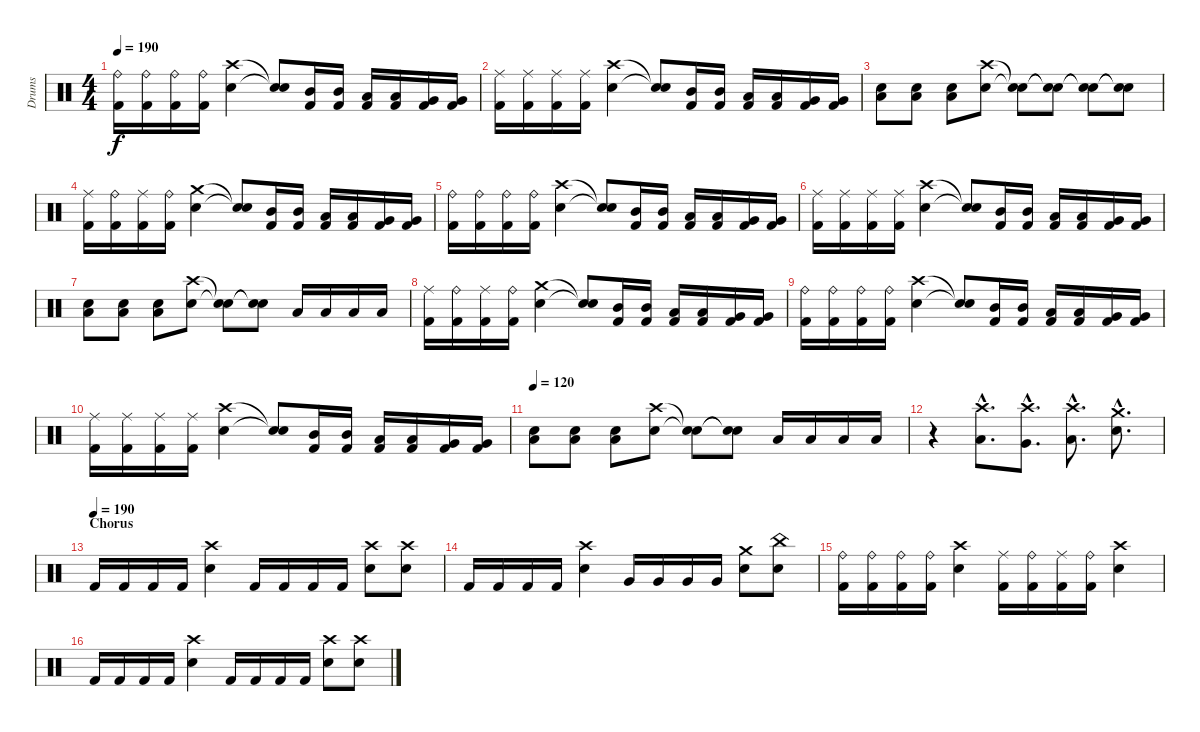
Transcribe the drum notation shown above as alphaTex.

\track ("Drums" "Drums") {instrument percussion}
\staff {score}
\articulation defaults
\ts (4 4)
\tempo 190
\clef neutral
\ks c
("Ride (bell)" "Kick (hit) 2").16{dy f} ("Ride (bell)" "Kick (hit) 2").16 ("Ride (bell)" "Kick (hit) 2").16 ("Ride (bell)" "Kick (hit) 2").16 ("Crash high (hit)" "Electric Snare (hit)").4 ("Snare (hit)"{t} "Snare (hit)"{t}).8 ("Mid Tom (hit)" "Kick (hit) 2").16 ("Mid Tom (hit)" "Kick (hit) 2").16 ("Low Tom (hit)" "Kick (hit) 2").16 ("Low Tom (hit)" "Kick (hit) 2").16 ("Very Low Tom (hit)" "Kick (hit) 2").16 ("Very Low Tom (hit)" "Kick (hit) 2").16 |
("Ride (middle)" "Kick (hit) 2").16 ("Ride (middle)" "Kick (hit) 2").16 ("Ride (middle)" "Kick (hit) 2").16 ("Ride (middle)" "Kick (hit) 2").16 ("Crash high (hit)" "Electric Snare (hit)").4 ("Snare (hit)"{t} "Snare (hit)"{t}).8 ("Mid Tom (hit)" "Kick (hit) 2").16 ("Mid Tom (hit)" "Kick (hit) 2").16 ("Low Tom (hit)" "Kick (hit) 2").16 ("Low Tom (hit)" "Kick (hit) 2").16 ("Very Low Tom (hit)" "Kick (hit) 2").16 ("Very Low Tom (hit)" "Kick (hit) 2").16 |
("Low Tom (hit)" "Electric Snare (hit)").8 ("Low Tom (hit)" "Electric Snare (hit)").8 ("Low Tom (hit)" "Electric Snare (hit)").8 ("Crash high (hit)" "Electric Snare (hit)").8 ("Snare (hit)"{t} "Snare (hit)"{t}).8 ("Snare (hit)"{t} "Snare (hit)"{t}).8 ("Snare (hit)"{t} "Snare (hit)"{t}).8 ("Snare (hit)"{t} "Snare (hit)"{t}).8 |
("Ride (middle)" "Kick (hit) 2").16 ("Ride (bell)" "Kick (hit) 2").16 ("Ride (middle)" "Kick (hit) 2").16 ("Ride (bell)" "Kick (hit) 2").16 ("Crash medium (hit)" "Electric Snare (hit)").4 ("Snare (hit)"{t} "Snare (hit)"{t}).8 ("Mid Tom (hit)" "Kick (hit) 2").16 ("Mid Tom (hit)" "Kick (hit) 2").16 ("Low Tom (hit)" "Kick (hit) 2").16 ("Low Tom (hit)" "Kick (hit) 2").16 ("Very Low Tom (hit)" "Kick (hit) 2").16 ("Very Low Tom (hit)" "Kick (hit) 2").16 |
("Ride (bell)" "Kick (hit) 2").16 ("Ride (bell)" "Kick (hit) 2").16 ("Ride (bell)" "Kick (hit) 2").16 ("Ride (bell)" "Kick (hit) 2").16 ("Crash high (hit)" "Electric Snare (hit)").4 ("Snare (hit)"{t} "Snare (hit)"{t}).8 ("Mid Tom (hit)" "Kick (hit) 2").16 ("Mid Tom (hit)" "Kick (hit) 2").16 ("Low Tom (hit)" "Kick (hit) 2").16 ("Low Tom (hit)" "Kick (hit) 2").16 ("Very Low Tom (hit)" "Kick (hit) 2").16 ("Very Low Tom (hit)" "Kick (hit) 2").16 |
("Ride (middle)" "Kick (hit) 2").16 ("Ride (middle)" "Kick (hit) 2").16 ("Ride (middle)" "Kick (hit) 2").16 ("Ride (middle)" "Kick (hit) 2").16 ("Crash high (hit)" "Electric Snare (hit)").4 ("Snare (hit)"{t} "Snare (hit)"{t}).8 ("Mid Tom (hit)" "Kick (hit) 2").16 ("Mid Tom (hit)" "Kick (hit) 2").16 ("Low Tom (hit)" "Kick (hit) 2").16 ("Low Tom (hit)" "Kick (hit) 2").16 ("Very Low Tom (hit)" "Kick (hit) 2").16 ("Very Low Tom (hit)" "Kick (hit) 2").16 |
("Low Tom (hit)" "Electric Snare (hit)").8 ("Low Tom (hit)" "Electric Snare (hit)").8 ("Low Tom (hit)" "Electric Snare (hit)").8 ("Crash high (hit)" "Electric Snare (hit)").8 ("Snare (hit)"{t} "Snare (hit)"{t}).8 ("Snare (hit)"{t} "Snare (hit)"{t}).8 "Low Tom (hit)".16 "Low Tom (hit)".16 "Low Tom (hit)".16 "Low Tom (hit)".16 |
("Ride (middle)" "Kick (hit) 2").16 ("Ride (bell)" "Kick (hit) 2").16 ("Ride (middle)" "Kick (hit) 2").16 ("Ride (bell)" "Kick (hit) 2").16 ("Crash medium (hit)" "Electric Snare (hit)").4 ("Snare (hit)"{t} "Snare (hit)"{t}).8 ("Mid Tom (hit)" "Kick (hit) 2").16 ("Mid Tom (hit)" "Kick (hit) 2").16 ("Low Tom (hit)" "Kick (hit) 2").16 ("Low Tom (hit)" "Kick (hit) 2").16 ("Very Low Tom (hit)" "Kick (hit) 2").16 ("Very Low Tom (hit)" "Kick (hit) 2").16 |
("Ride (bell)" "Kick (hit) 2").16 ("Ride (bell)" "Kick (hit) 2").16 ("Ride (bell)" "Kick (hit) 2").16 ("Ride (bell)" "Kick (hit) 2").16 ("Crash high (hit)" "Electric Snare (hit)").4 ("Snare (hit)"{t} "Snare (hit)"{t}).8 ("Mid Tom (hit)" "Kick (hit) 2").16 ("Mid Tom (hit)" "Kick (hit) 2").16 ("Low Tom (hit)" "Kick (hit) 2").16 ("Low Tom (hit)" "Kick (hit) 2").16 ("Very Low Tom (hit)" "Kick (hit) 2").16 ("Very Low Tom (hit)" "Kick (hit) 2").16 |
("Ride (middle)" "Kick (hit) 2").16 ("Ride (middle)" "Kick (hit) 2").16 ("Ride (middle)" "Kick (hit) 2").16 ("Ride (middle)" "Kick (hit) 2").16 ("Crash high (hit)" "Electric Snare (hit)").4 ("Snare (hit)"{t} "Snare (hit)"{t}).8 ("Mid Tom (hit)" "Kick (hit) 2").16 ("Mid Tom (hit)" "Kick (hit) 2").16 ("Low Tom (hit)" "Kick (hit) 2").16 ("Low Tom (hit)" "Kick (hit) 2").16 ("Very Low Tom (hit)" "Kick (hit) 2").16 ("Very Low Tom (hit)" "Kick (hit) 2").16 |
\tempo 120
("Low Tom (hit)" "Electric Snare (hit)").8 ("Low Tom (hit)" "Electric Snare (hit)").8 ("Low Tom (hit)" "Electric Snare (hit)").8 ("Crash high (hit)" "Electric Snare (hit)").8 ("Snare (hit)"{t} "Snare (hit)"{t}).8 ("Snare (hit)"{t} "Snare (hit)"{t}).8 "Low Tom (hit)".16 "Low Tom (hit)".16 "Low Tom (hit)".16 "Low Tom (hit)".16 |
r.4 ("Low Tom (hit)"{hac} "Crash high (hit)"{hac}).8{d} ("Very Low Tom (hit)"{hac} "Crash high (hit)"{hac}).8{d} ("Low Floor Tom (hit)"{hac} "Crash high (hit)"{hac}).8{d} ("Electric Snare (hit)"{hac} "Crash medium (hit)"{hac}).8{d} |
\section ("" "Chorus")
\tempo (190)
"Kick (hit) 2".16 "Kick (hit) 2".16 "Kick (hit) 2".16 "Kick (hit) 2".16 ("Electric Snare (hit)" "Crash high (hit)").4 "Kick (hit) 2".16 "Kick (hit) 2".16 "Kick (hit) 2".16 "Kick (hit) 2".16 ("Electric Snare (hit)" "Crash high (hit)").8 ("Electric Snare (hit)" "Crash high (hit)").8 |
"Kick (hit) 2".16 "Kick (hit) 2".16 "Kick (hit) 2".16 "Kick (hit) 2".16 ("Electric Snare (hit)" "Crash high (hit)").4 "Very Low Tom (hit)".16 "Very Low Tom (hit)".16 "Very Low Tom (hit)".16 "Very Low Tom (hit)".16 ("Electric Snare (hit)" "Crash medium (hit)").8 ("Electric Snare (hit)" "China (hit)").8 |
("Kick (hit) 2" "Ride (bell)").16 ("Kick (hit) 2" "Ride (bell)").16 ("Kick (hit) 2" "Ride (bell)").16 ("Kick (hit) 2" "Ride (bell)").16 ("Electric Snare (hit)" "Crash high (hit)").4 ("Kick (hit) 2" "Ride (middle)").16 ("Kick (hit) 2" "Ride (bell)").16 ("Kick (hit) 2" "Ride (middle)").16 ("Kick (hit) 2" "Ride (bell)").16 ("Electric Snare (hit)" "Crash high (hit)").4 |
"Kick (hit) 2".16 "Kick (hit) 2".16 "Kick (hit) 2".16 "Kick (hit) 2".16 ("Electric Snare (hit)" "Crash high (hit)").4 "Kick (hit) 2".16 "Kick (hit) 2".16 "Kick (hit) 2".16 "Kick (hit) 2".16 ("Electric Snare (hit)" "Crash high (hit)").8 ("Electric Snare (hit)" "Crash high (hit)").8
